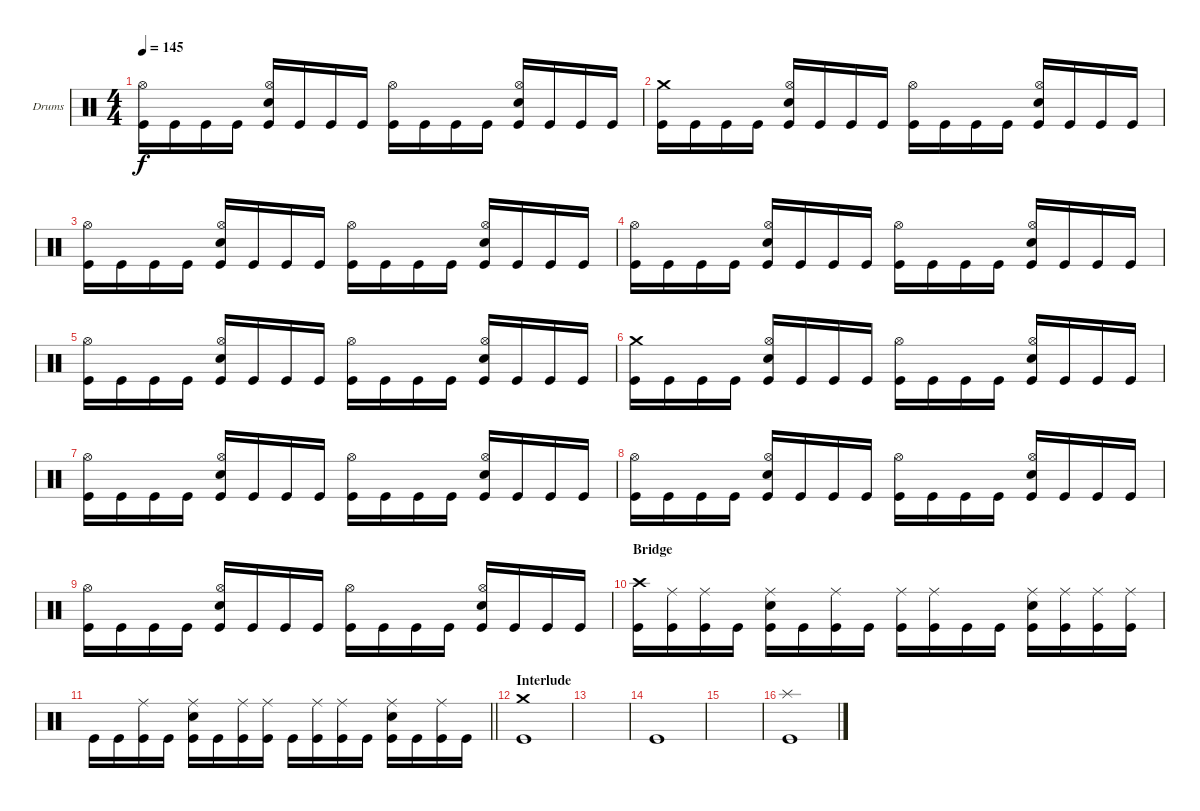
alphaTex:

\defaultSystemsLayout 4
\bracketExtendMode groupsimilarinstruments
\firstSystemTrackNameOrientation horizontal
\otherSystemsTrackNameOrientation horizontal
\track ("Drums" "Drums") {instrument percussion}
\staff {score}
\articulation defaults
\ts (4 4)
\tempo 145
\clef neutral
\ks c
("Kick (hit)" "Hi-Hat (open)").16{dy f} "Kick (hit)".16 "Kick (hit)".16 "Kick (hit)".16 ("Snare (hit) 2" "Hi-Hat (open)" "Kick (hit)").16 "Kick (hit)".16 "Kick (hit)".16 "Kick (hit)".16 ("Kick (hit)" "Hi-Hat (open)").16 "Kick (hit)".16 "Kick (hit)".16 "Kick (hit)".16 ("Snare (hit) 2" "Hi-Hat (open)" "Kick (hit)").16 "Kick (hit)".16 "Kick (hit)".16 "Kick (hit)".16 |
("Kick (hit)" "Crash medium (hit)").16 "Kick (hit)".16 "Kick (hit)".16 "Kick (hit)".16 ("Snare (hit) 2" "Hi-Hat (open)" "Kick (hit)").16 "Kick (hit)".16 "Kick (hit)".16 "Kick (hit)".16 ("Kick (hit)" "Hi-Hat (open)").16 "Kick (hit)".16 "Kick (hit)".16 "Kick (hit)".16 ("Snare (hit) 2" "Hi-Hat (open)" "Kick (hit)").16 "Kick (hit)".16 "Kick (hit)".16 "Kick (hit)".16 |
("Kick (hit)" "Hi-Hat (open)").16 "Kick (hit)".16 "Kick (hit)".16 "Kick (hit)".16 ("Snare (hit) 2" "Hi-Hat (open)" "Kick (hit)").16 "Kick (hit)".16 "Kick (hit)".16 "Kick (hit)".16 ("Kick (hit)" "Hi-Hat (open)").16 "Kick (hit)".16 "Kick (hit)".16 "Kick (hit)".16 ("Snare (hit) 2" "Hi-Hat (open)" "Kick (hit)").16 "Kick (hit)".16 "Kick (hit)".16 "Kick (hit)".16 |
("Kick (hit)" "Hi-Hat (open)").16 "Kick (hit)".16 "Kick (hit)".16 "Kick (hit)".16 ("Snare (hit) 2" "Hi-Hat (open)" "Kick (hit)").16 "Kick (hit)".16 "Kick (hit)".16 "Kick (hit)".16 ("Kick (hit)" "Hi-Hat (open)").16 "Kick (hit)".16 "Kick (hit)".16 "Kick (hit)".16 ("Snare (hit) 2" "Hi-Hat (open)" "Kick (hit)").16 "Kick (hit)".16 "Kick (hit)".16 "Kick (hit)".16 |
("Kick (hit)" "Hi-Hat (open)").16 "Kick (hit)".16 "Kick (hit)".16 "Kick (hit)".16 ("Snare (hit) 2" "Hi-Hat (open)" "Kick (hit)").16 "Kick (hit)".16 "Kick (hit)".16 "Kick (hit)".16 ("Kick (hit)" "Hi-Hat (open)").16 "Kick (hit)".16 "Kick (hit)".16 "Kick (hit)".16 ("Snare (hit) 2" "Hi-Hat (open)" "Kick (hit)").16 "Kick (hit)".16 "Kick (hit)".16 "Kick (hit)".16 |
("Kick (hit)" "Crash medium (hit)").16 "Kick (hit)".16 "Kick (hit)".16 "Kick (hit)".16 ("Snare (hit) 2" "Hi-Hat (open)" "Kick (hit)").16 "Kick (hit)".16 "Kick (hit)".16 "Kick (hit)".16 ("Kick (hit)" "Hi-Hat (open)").16 "Kick (hit)".16 "Kick (hit)".16 "Kick (hit)".16 ("Snare (hit) 2" "Hi-Hat (open)" "Kick (hit)").16 "Kick (hit)".16 "Kick (hit)".16 "Kick (hit)".16 |
("Kick (hit)" "Hi-Hat (open)").16 "Kick (hit)".16 "Kick (hit)".16 "Kick (hit)".16 ("Snare (hit) 2" "Hi-Hat (open)" "Kick (hit)").16 "Kick (hit)".16 "Kick (hit)".16 "Kick (hit)".16 ("Kick (hit)" "Hi-Hat (open)").16 "Kick (hit)".16 "Kick (hit)".16 "Kick (hit)".16 ("Snare (hit) 2" "Hi-Hat (open)" "Kick (hit)").16 "Kick (hit)".16 "Kick (hit)".16 "Kick (hit)".16 |
("Kick (hit)" "Hi-Hat (open)").16 "Kick (hit)".16 "Kick (hit)".16 "Kick (hit)".16 ("Snare (hit) 2" "Hi-Hat (open)" "Kick (hit)").16 "Kick (hit)".16 "Kick (hit)".16 "Kick (hit)".16 ("Kick (hit)" "Hi-Hat (open)").16 "Kick (hit)".16 "Kick (hit)".16 "Kick (hit)".16 ("Snare (hit) 2" "Hi-Hat (open)" "Kick (hit)").16 "Kick (hit)".16 "Kick (hit)".16 "Kick (hit)".16 |
("Kick (hit)" "Hi-Hat (open)").16 "Kick (hit)".16 "Kick (hit)".16 "Kick (hit)".16 ("Snare (hit) 2" "Hi-Hat (open)" "Kick (hit)").16 "Kick (hit)".16 "Kick (hit)".16 "Kick (hit)".16 ("Kick (hit)" "Hi-Hat (open)").16 "Kick (hit)".16 "Kick (hit)".16 "Kick (hit)".16 ("Snare (hit) 2" "Hi-Hat (open)" "Kick (hit)").16 "Kick (hit)".16 "Kick (hit)".16 "Kick (hit)".16 |
\section ("" "Bridge")
("Kick (hit)" "Crash high (hit)").16 ("Kick (hit)" "Ride (middle)").16 ("Kick (hit)" "Ride (middle)").16 "Kick (hit)".16 ("Snare (hit) 2" "Ride (middle)" "Kick (hit)").16 "Kick (hit)".16 ("Kick (hit)" "Ride (middle)").16 "Kick (hit)".16 ("Kick (hit)" "Ride (middle)").16 ("Kick (hit)" "Ride (middle)").16 "Kick (hit)".16 "Kick (hit)".16 ("Snare (hit) 2" "Ride (middle)" "Kick (hit)").16 ("Kick (hit)" "Ride (middle)").16 ("Kick (hit)" "Ride (middle)").16 ("Kick (hit)" "Ride (middle)").16 |
\barLineRight lightlight "Kick (hit)".16 "Kick (hit)".16
("Kick (hit)" "Ride (middle)").16 "Kick (hit)".16 ("Snare (hit) 2" "Kick (hit)" "Ride (middle)").16 "Kick (hit)".16 ("Kick (hit)" "Ride (middle)").16 ("Kick (hit)" "Ride (middle)").16 "Kick (hit)".16 ("Kick (hit)" "Ride (middle)").16 ("Kick (hit)" "Ride (middle)").16 "Kick (hit)".16 ("Snare (hit) 2" "Kick (hit)" "Ride (middle)").16 "Kick (hit)".16 ("Kick (hit)" "Ride (middle)").16 "Kick (hit)".16 |
\section ("" "Interlude")
("Kick (hit)" "Crash medium (hit)").1 |
|
"Kick (hit)".1 |
|
("Kick (hit)" "Splash (hit)").1
